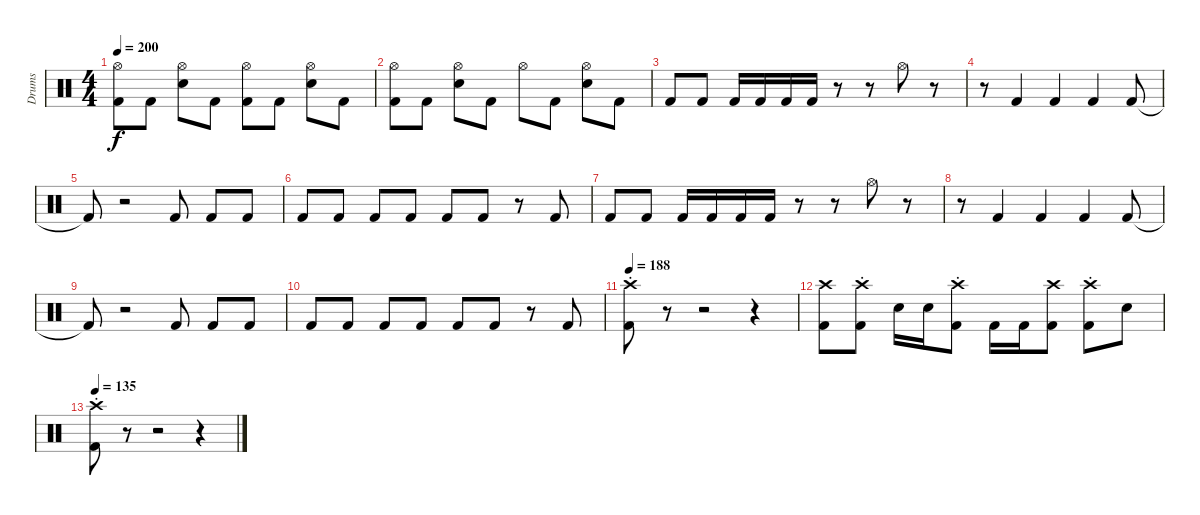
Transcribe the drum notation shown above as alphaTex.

\track ("Drums" "Drums") {instrument percussion}
\staff {score}
\articulation defaults
\ts (4 4)
\tempo 200
\clef neutral
\ks c
("Kick (hit) 2" "Hi-Hat (open)").8{dy f} "Kick (hit) 2".8 ("Electric Snare (hit)" "Hi-Hat (open)").8 "Kick (hit) 2".8 ("Kick (hit) 2" "Hi-Hat (open)").8 "Kick (hit) 2".8 ("Electric Snare (hit)" "Hi-Hat (open)").8 "Kick (hit) 2".8 |
("Kick (hit) 2" "Hi-Hat (open)").8 "Kick (hit) 2".8 ("Electric Snare (hit)" "Hi-Hat (open)").8 "Kick (hit) 2".8 "Hi-Hat (open)".8 "Kick (hit) 2".8 ("Electric Snare (hit)" "Hi-Hat (open)").8 "Kick (hit) 2".8 |
"Kick (hit) 2".8 "Kick (hit) 2".8 "Kick (hit) 2".16 "Kick (hit) 2".16 "Kick (hit) 2".16 "Kick (hit) 2".16 r.8 r.8 "Hi-Hat (open)".8 r.8 |
r.8 "Kick (hit) 2".4 "Kick (hit) 2".4 "Kick (hit) 2".4 "Kick (hit) 2".8 |
"Kick (hit) 2"{t}.8 r.2 "Kick (hit) 2".8 "Kick (hit) 2".8 "Kick (hit) 2".8 |
"Kick (hit) 2".8 "Kick (hit) 2".8 "Kick (hit) 2".8 "Kick (hit) 2".8 "Kick (hit) 2".8 "Kick (hit) 2".8 r.8 "Kick (hit) 2".8 |
"Kick (hit) 2".8 "Kick (hit) 2".8 "Kick (hit) 2".16 "Kick (hit) 2".16 "Kick (hit) 2".16 "Kick (hit) 2".16 r.8 r.8 "Hi-Hat (open)".8 r.8 |
r.8 "Kick (hit) 2".4 "Kick (hit) 2".4 "Kick (hit) 2".4 "Kick (hit) 2".8 |
"Kick (hit) 2"{t}.8 r.2 "Kick (hit) 2".8 "Kick (hit) 2".8 "Kick (hit) 2".8 |
"Kick (hit) 2".8 "Kick (hit) 2".8 "Kick (hit) 2".8 "Kick (hit) 2".8 "Kick (hit) 2".8 "Kick (hit) 2".8 r.8 "Kick (hit) 2".8 |
\tempo 188
("Kick (hit) 2" "Crash high (hit)"{st}).8 r.8 r.2 r.4 |
("Kick (hit) 2" "Crash high (hit)").8 ("Kick (hit) 2"{st} "Crash high (hit)").8 "Electric Snare (hit)".16 "Electric Snare (hit)".16 ("Kick (hit) 2" "Crash high (hit)"{st}).8 "Kick (hit) 2".16 "Kick (hit) 2".16 ("Kick (hit) 2" "Crash high (hit)").8 ("Kick (hit) 2"{st} "Crash high (hit)").8 "Electric Snare (hit)".8 |
\tempo 135
("Kick (hit) 2"{st} "Crash high (hit)"{st}).8 r.8 r.2 r.4
